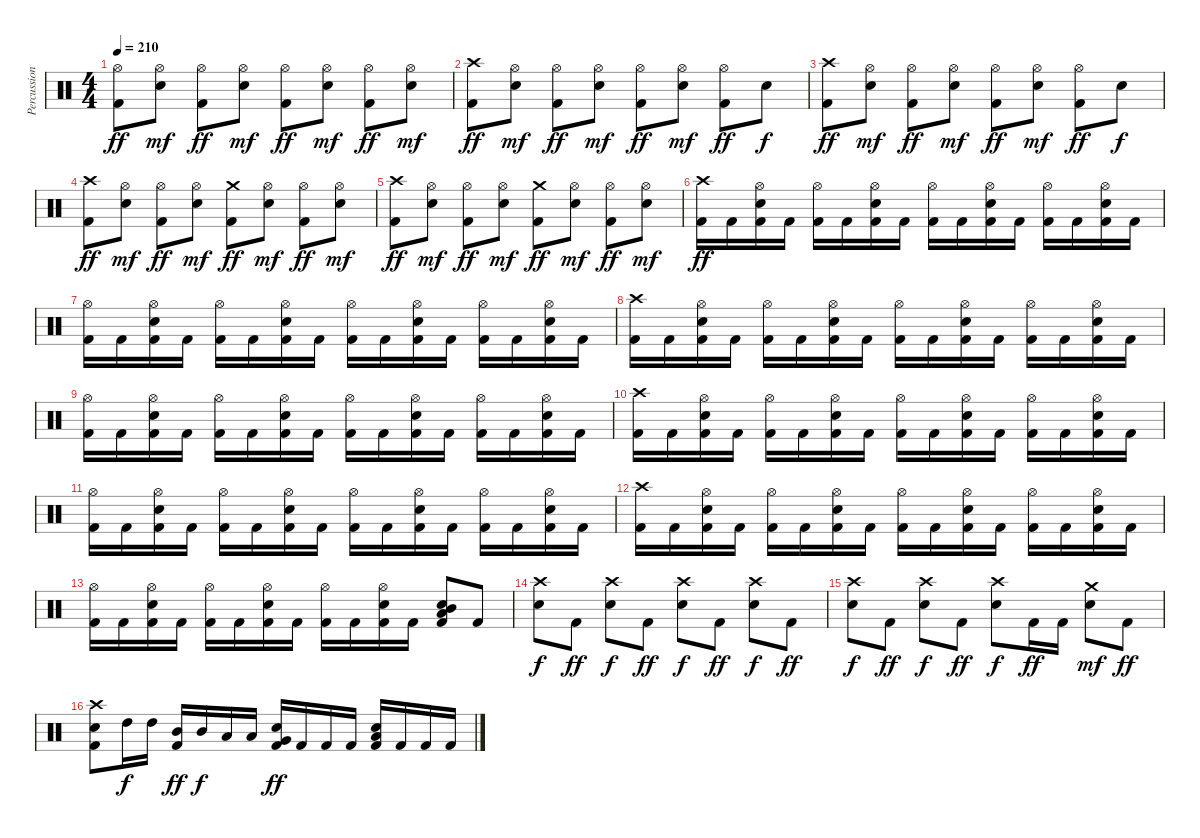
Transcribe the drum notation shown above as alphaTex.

\track ("Percussion" "Percussion") {instrument percussion}
\staff {score}
\articulation defaults
\ts (4 4)
\tempo 210
\clef neutral
\ks c
("Hi-Hat (open)" "Kick (hit) 2").8{dy ff} ("Hi-Hat (open)" "Snare (hit) 2").8{dy mf} ("Hi-Hat (open)" "Kick (hit) 2").8{dy ff} ("Hi-Hat (open)" "Snare (hit) 2").8{dy mf} ("Hi-Hat (open)" "Kick (hit) 2").8{dy ff} ("Hi-Hat (open)" "Snare (hit) 2").8{dy mf} ("Hi-Hat (open)" "Kick (hit) 2").8{dy ff} ("Hi-Hat (open)" "Snare (hit) 2").8{dy mf} |
("Crash high (hit)" "Kick (hit) 2").8{dy ff} ("Hi-Hat (open)" "Snare (hit) 2").8{dy mf} ("Hi-Hat (open)" "Kick (hit) 2").8{dy ff} ("Hi-Hat (open)" "Snare (hit) 2").8{dy mf} ("Hi-Hat (open)" "Kick (hit) 2").8{dy ff} ("Hi-Hat (open)" "Snare (hit) 2").8{dy mf} ("Hi-Hat (open)" "Kick (hit) 2").8{dy ff} "Snare (hit) 2".8{dy f} |
("Crash high (hit)" "Kick (hit) 2").8{dy ff} ("Hi-Hat (open)" "Snare (hit) 2").8{dy mf} ("Hi-Hat (open)" "Kick (hit) 2").8{dy ff} ("Hi-Hat (open)" "Snare (hit) 2").8{dy mf} ("Hi-Hat (open)" "Kick (hit) 2").8{dy ff} ("Hi-Hat (open)" "Snare (hit) 2").8{dy mf} ("Hi-Hat (open)" "Kick (hit) 2").8{dy ff} "Snare (hit) 2".8{dy f} |
("Crash high (hit)" "Kick (hit) 2").8{dy ff} ("Hi-Hat (open)" "Snare (hit) 2").8{dy mf} ("Hi-Hat (open)" "Kick (hit) 2").8{dy ff} ("Hi-Hat (open)" "Snare (hit) 2").8{dy mf} ("Crash medium (hit)" "Kick (hit) 2").8{dy ff} ("Hi-Hat (open)" "Snare (hit) 2").8{dy mf} ("Hi-Hat (open)" "Kick (hit) 2").8{dy ff} ("Hi-Hat (open)" "Snare (hit) 2").8{dy mf} |
("Crash high (hit)" "Kick (hit) 2").8{dy ff} ("Hi-Hat (open)" "Snare (hit) 2").8{dy mf} ("Hi-Hat (open)" "Kick (hit) 2").8{dy ff} ("Hi-Hat (open)" "Snare (hit) 2").8{dy mf} ("Crash medium (hit)" "Kick (hit) 2").8{dy ff} ("Hi-Hat (open)" "Snare (hit) 2").8{dy mf} ("Hi-Hat (open)" "Kick (hit) 2").8{dy ff} ("Hi-Hat (open)" "Snare (hit) 2").8{dy mf} |
("Crash high (hit)" "Kick (hit) 2").16{dy ff} "Kick (hit) 2".16 ("Hi-Hat (open)" "Snare (hit) 2" "Kick (hit) 2").16 "Kick (hit) 2".16 ("Hi-Hat (open)" "Kick (hit) 2").16 "Kick (hit) 2".16 ("Hi-Hat (open)" "Snare (hit) 2" "Kick (hit) 2").16 "Kick (hit) 2".16 ("Hi-Hat (open)" "Kick (hit) 2").16 "Kick (hit) 2".16 ("Hi-Hat (open)" "Snare (hit) 2" "Kick (hit) 2").16 "Kick (hit) 2".16 ("Hi-Hat (open)" "Kick (hit) 2").16 "Kick (hit) 2".16 ("Hi-Hat (open)" "Snare (hit) 2" "Kick (hit) 2").16 "Kick (hit) 2".16 |
("Hi-Hat (open)" "Kick (hit) 2").16 "Kick (hit) 2".16 ("Hi-Hat (open)" "Snare (hit) 2" "Kick (hit) 2").16 "Kick (hit) 2".16 ("Hi-Hat (open)" "Kick (hit) 2").16 "Kick (hit) 2".16 ("Hi-Hat (open)" "Snare (hit) 2" "Kick (hit) 2").16 "Kick (hit) 2".16 ("Hi-Hat (open)" "Kick (hit) 2").16 "Kick (hit) 2".16 ("Hi-Hat (open)" "Snare (hit) 2" "Kick (hit) 2").16 "Kick (hit) 2".16 ("Hi-Hat (open)" "Kick (hit) 2").16 "Kick (hit) 2".16 ("Hi-Hat (open)" "Snare (hit) 2" "Kick (hit) 2").16 "Kick (hit) 2".16 |
("Crash high (hit)" "Kick (hit) 2").16 "Kick (hit) 2".16 ("Hi-Hat (open)" "Snare (hit) 2" "Kick (hit) 2").16 "Kick (hit) 2".16 ("Hi-Hat (open)" "Kick (hit) 2").16 "Kick (hit) 2".16 ("Hi-Hat (open)" "Snare (hit) 2" "Kick (hit) 2").16 "Kick (hit) 2".16 ("Hi-Hat (open)" "Kick (hit) 2").16 "Kick (hit) 2".16 ("Hi-Hat (open)" "Snare (hit) 2" "Kick (hit) 2").16 "Kick (hit) 2".16 ("Hi-Hat (open)" "Kick (hit) 2").16 "Kick (hit) 2".16 ("Hi-Hat (open)" "Snare (hit) 2" "Kick (hit) 2").16 "Kick (hit) 2".16 |
("Hi-Hat (open)" "Kick (hit) 2").16 "Kick (hit) 2".16 ("Hi-Hat (open)" "Snare (hit) 2" "Kick (hit) 2").16 "Kick (hit) 2".16 ("Hi-Hat (open)" "Kick (hit) 2").16 "Kick (hit) 2".16 ("Hi-Hat (open)" "Snare (hit) 2" "Kick (hit) 2").16 "Kick (hit) 2".16 ("Hi-Hat (open)" "Kick (hit) 2").16 "Kick (hit) 2".16 ("Hi-Hat (open)" "Snare (hit) 2" "Kick (hit) 2").16 "Kick (hit) 2".16 ("Hi-Hat (open)" "Kick (hit) 2").16 "Kick (hit) 2".16 ("Hi-Hat (open)" "Snare (hit) 2" "Kick (hit) 2").16 "Kick (hit) 2".16 |
("Crash high (hit)" "Kick (hit) 2").16 "Kick (hit) 2".16 ("Hi-Hat (open)" "Snare (hit) 2" "Kick (hit) 2").16 "Kick (hit) 2".16 ("Hi-Hat (open)" "Kick (hit) 2").16 "Kick (hit) 2".16 ("Hi-Hat (open)" "Snare (hit) 2" "Kick (hit) 2").16 "Kick (hit) 2".16 ("Hi-Hat (open)" "Kick (hit) 2").16 "Kick (hit) 2".16 ("Hi-Hat (open)" "Snare (hit) 2" "Kick (hit) 2").16 "Kick (hit) 2".16 ("Hi-Hat (open)" "Kick (hit) 2").16 "Kick (hit) 2".16 ("Hi-Hat (open)" "Snare (hit) 2" "Kick (hit) 2").16 "Kick (hit) 2".16 |
("Hi-Hat (open)" "Kick (hit) 2").16 "Kick (hit) 2".16 ("Hi-Hat (open)" "Snare (hit) 2" "Kick (hit) 2").16 "Kick (hit) 2".16 ("Hi-Hat (open)" "Kick (hit) 2").16 "Kick (hit) 2".16 ("Hi-Hat (open)" "Snare (hit) 2" "Kick (hit) 2").16 "Kick (hit) 2".16 ("Hi-Hat (open)" "Kick (hit) 2").16 "Kick (hit) 2".16 ("Hi-Hat (open)" "Snare (hit) 2" "Kick (hit) 2").16 "Kick (hit) 2".16 ("Hi-Hat (open)" "Kick (hit) 2").16 "Kick (hit) 2".16 ("Hi-Hat (open)" "Snare (hit) 2" "Kick (hit) 2").16 "Kick (hit) 2".16 |
("Crash high (hit)" "Kick (hit) 2").16 "Kick (hit) 2".16 ("Hi-Hat (open)" "Snare (hit) 2" "Kick (hit) 2").16 "Kick (hit) 2".16 ("Hi-Hat (open)" "Kick (hit) 2").16 "Kick (hit) 2".16 ("Hi-Hat (open)" "Snare (hit) 2" "Kick (hit) 2").16 "Kick (hit) 2".16 ("Hi-Hat (open)" "Kick (hit) 2").16 "Kick (hit) 2".16 ("Hi-Hat (open)" "Snare (hit) 2" "Kick (hit) 2").16 "Kick (hit) 2".16 ("Hi-Hat (open)" "Kick (hit) 2").16 "Kick (hit) 2".16 ("Hi-Hat (open)" "Snare (hit) 2" "Kick (hit) 2").16 "Kick (hit) 2".16 |
("Hi-Hat (open)" "Kick (hit) 2").16 "Kick (hit) 2".16 ("Hi-Hat (open)" "Snare (hit) 2" "Kick (hit) 2").16 "Kick (hit) 2".16 ("Hi-Hat (open)" "Kick (hit) 2").16 "Kick (hit) 2".16 ("Hi-Hat (open)" "Snare (hit) 2" "Kick (hit) 2").16 "Kick (hit) 2".16 ("Hi-Hat (open)" "Kick (hit) 2").16 "Kick (hit) 2".16 ("Hi-Hat (open)" "Snare (hit) 2" "Kick (hit) 2").16 "Kick (hit) 2".16 ("Low Tom (hit)" "Mid Tom (hit)" "Snare (hit) 2" "Kick (hit) 2").8 "Kick (hit) 2".8 |
("Crash high (hit)" "Snare (hit) 2").8{dy f} "Kick (hit) 2".8{dy ff} ("Crash high (hit)" "Snare (hit) 2").8{dy f} "Kick (hit) 2".8{dy ff} ("Crash high (hit)" "Snare (hit) 2").8{dy f} "Kick (hit) 2".8{dy ff} ("Crash high (hit)" "Snare (hit) 2").8{dy f} "Kick (hit) 2".8{dy ff} |
("Crash high (hit)" "Snare (hit) 2").8{dy f} "Kick (hit) 2".8{dy ff} ("Crash high (hit)" "Snare (hit) 2").8{dy f} "Kick (hit) 2".8{dy ff} ("Crash high (hit)" "Snare (hit) 2").8{dy f} "Kick (hit) 2".16{dy ff} "Kick (hit) 2".16 ("Crash medium (hit)" "Snare (hit) 2").8{dy mf} "Kick (hit) 2".8{dy ff} |
("Crash high (hit)" "Snare (hit) 2" "Kick (hit) 2").8 "High Tom (hit)".16{dy f} "High Tom (hit)".16 ("Mid Tom (hit)" "Kick (hit) 2").16{dy ff} "Mid Tom (hit)".16{dy f} "Low Tom (hit)".16 "Low Tom (hit)".16 ("Very Low Tom (hit)" "Snare (hit) 2" "Kick (hit) 2").16{dy ff} "Kick (hit) 2".16 "Kick (hit) 2".16 "Kick (hit) 2".16 ("Low Tom (hit)" "Snare (hit) 2" "Kick (hit) 2").16 "Kick (hit) 2".16 "Kick (hit) 2".16 "Kick (hit) 2".16
